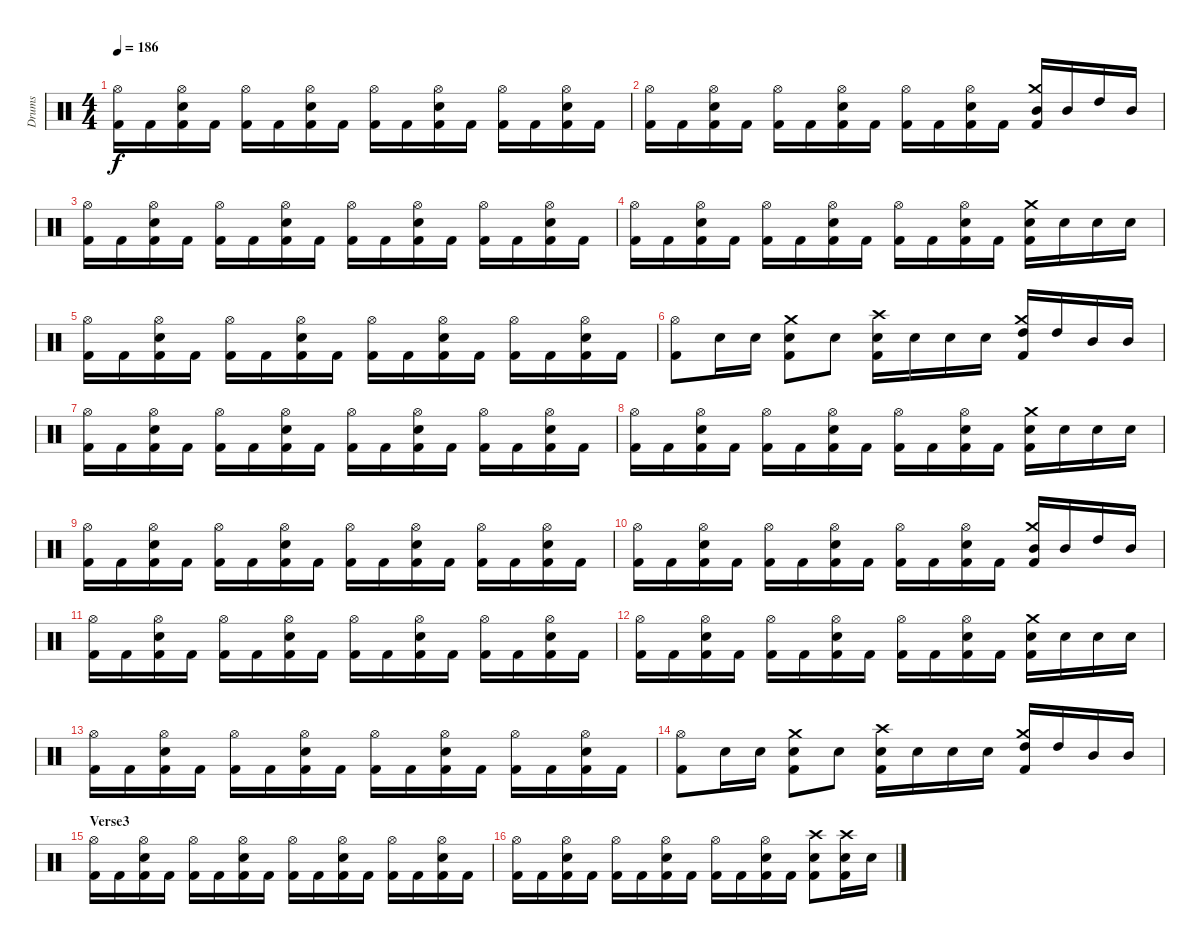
\track ("Drums" "Drums") {instrument percussion}
\staff {score}
\articulation defaults
\ts (4 4)
\tempo 186
\clef neutral
\ks c
("Hi-Hat (open)" "Kick (hit) 2").16{dy f} "Kick (hit) 2".16 ("Electric Snare (hit)" "Hi-Hat (open)" "Kick (hit) 2").16 "Kick (hit) 2".16 ("Hi-Hat (open)" "Kick (hit) 2").16 "Kick (hit) 2".16 ("Electric Snare (hit)" "Hi-Hat (open)" "Kick (hit) 2").16 "Kick (hit) 2".16 ("Hi-Hat (open)" "Kick (hit) 2").16 "Kick (hit) 2".16 ("Electric Snare (hit)" "Hi-Hat (open)" "Kick (hit) 2").16 "Kick (hit) 2".16 ("Hi-Hat (open)" "Kick (hit) 2").16 "Kick (hit) 2".16 ("Electric Snare (hit)" "Hi-Hat (open)" "Kick (hit) 2").16 "Kick (hit) 2".16 |
("Hi-Hat (open)" "Kick (hit) 2").16 "Kick (hit) 2".16 ("Electric Snare (hit)" "Hi-Hat (open)" "Kick (hit) 2").16 "Kick (hit) 2".16 ("Hi-Hat (open)" "Kick (hit) 2").16 "Kick (hit) 2".16 ("Electric Snare (hit)" "Hi-Hat (open)" "Kick (hit) 2").16 "Kick (hit) 2".16 ("Hi-Hat (open)" "Kick (hit) 2").16 "Kick (hit) 2".16 ("Electric Snare (hit)" "Hi-Hat (open)" "Kick (hit) 2").16 "Kick (hit) 2".16 ("Crash medium (hit)" "Kick (hit) 2" "Mid Tom (hit)").16 "Mid Tom (hit)".16 "High Tom (hit)".16 "Mid Tom (hit)".16 |
("Hi-Hat (open)" "Kick (hit) 2").16 "Kick (hit) 2".16 ("Electric Snare (hit)" "Hi-Hat (open)" "Kick (hit) 2").16 "Kick (hit) 2".16 ("Hi-Hat (open)" "Kick (hit) 2").16 "Kick (hit) 2".16 ("Electric Snare (hit)" "Hi-Hat (open)" "Kick (hit) 2").16 "Kick (hit) 2".16 ("Hi-Hat (open)" "Kick (hit) 2").16 "Kick (hit) 2".16 ("Electric Snare (hit)" "Hi-Hat (open)" "Kick (hit) 2").16 "Kick (hit) 2".16 ("Hi-Hat (open)" "Kick (hit) 2").16 "Kick (hit) 2".16 ("Electric Snare (hit)" "Hi-Hat (open)" "Kick (hit) 2").16 "Kick (hit) 2".16 |
("Hi-Hat (open)" "Kick (hit) 2").16 "Kick (hit) 2".16 ("Electric Snare (hit)" "Hi-Hat (open)" "Kick (hit) 2").16 "Kick (hit) 2".16 ("Hi-Hat (open)" "Kick (hit) 2").16 "Kick (hit) 2".16 ("Electric Snare (hit)" "Hi-Hat (open)" "Kick (hit) 2").16 "Kick (hit) 2".16 ("Hi-Hat (open)" "Kick (hit) 2").16 "Kick (hit) 2".16 ("Electric Snare (hit)" "Hi-Hat (open)" "Kick (hit) 2").16 "Kick (hit) 2".16 ("Crash medium (hit)" "Kick (hit) 2" "Electric Snare (hit)").16 "Electric Snare (hit)".16 "Electric Snare (hit)".16 "Electric Snare (hit)".16 |
("Hi-Hat (open)" "Kick (hit) 2").16 "Kick (hit) 2".16 ("Electric Snare (hit)" "Hi-Hat (open)" "Kick (hit) 2").16 "Kick (hit) 2".16 ("Hi-Hat (open)" "Kick (hit) 2").16 "Kick (hit) 2".16 ("Electric Snare (hit)" "Hi-Hat (open)" "Kick (hit) 2").16 "Kick (hit) 2".16 ("Hi-Hat (open)" "Kick (hit) 2").16 "Kick (hit) 2".16 ("Electric Snare (hit)" "Hi-Hat (open)" "Kick (hit) 2").16 "Kick (hit) 2".16 ("Hi-Hat (open)" "Kick (hit) 2").16 "Kick (hit) 2".16 ("Electric Snare (hit)" "Hi-Hat (open)" "Kick (hit) 2").16 "Kick (hit) 2".16 |
("Hi-Hat (open)" "Kick (hit) 2").8 "Electric Snare (hit)".16 "Electric Snare (hit)".16 ("Crash medium (hit)" "Electric Snare (hit)" "Kick (hit) 2").8 "Electric Snare (hit)".8 ("Crash high (hit)" "Electric Snare (hit)" "Kick (hit) 2").16 "Electric Snare (hit)".16 "Electric Snare (hit)".16 "Electric Snare (hit)".16 ("Crash medium (hit)" "High Tom (hit)" "Kick (hit) 2").16 "High Tom (hit)".16 "Mid Tom (hit)".16 "Mid Tom (hit)".16 |
("Hi-Hat (open)" "Kick (hit) 2").16 "Kick (hit) 2".16 ("Electric Snare (hit)" "Hi-Hat (open)" "Kick (hit) 2").16 "Kick (hit) 2".16 ("Hi-Hat (open)" "Kick (hit) 2").16 "Kick (hit) 2".16 ("Electric Snare (hit)" "Hi-Hat (open)" "Kick (hit) 2").16 "Kick (hit) 2".16 ("Hi-Hat (open)" "Kick (hit) 2").16 "Kick (hit) 2".16 ("Electric Snare (hit)" "Hi-Hat (open)" "Kick (hit) 2").16 "Kick (hit) 2".16 ("Hi-Hat (open)" "Kick (hit) 2").16 "Kick (hit) 2".16 ("Electric Snare (hit)" "Hi-Hat (open)" "Kick (hit) 2").16 "Kick (hit) 2".16 |
("Hi-Hat (open)" "Kick (hit) 2").16 "Kick (hit) 2".16 ("Electric Snare (hit)" "Hi-Hat (open)" "Kick (hit) 2").16 "Kick (hit) 2".16 ("Hi-Hat (open)" "Kick (hit) 2").16 "Kick (hit) 2".16 ("Electric Snare (hit)" "Hi-Hat (open)" "Kick (hit) 2").16 "Kick (hit) 2".16 ("Hi-Hat (open)" "Kick (hit) 2").16 "Kick (hit) 2".16 ("Electric Snare (hit)" "Hi-Hat (open)" "Kick (hit) 2").16 "Kick (hit) 2".16 ("Crash medium (hit)" "Kick (hit) 2" "Electric Snare (hit)").16 "Electric Snare (hit)".16 "Electric Snare (hit)".16 "Electric Snare (hit)".16 |
("Hi-Hat (open)" "Kick (hit) 2").16 "Kick (hit) 2".16 ("Electric Snare (hit)" "Hi-Hat (open)" "Kick (hit) 2").16 "Kick (hit) 2".16 ("Hi-Hat (open)" "Kick (hit) 2").16 "Kick (hit) 2".16 ("Electric Snare (hit)" "Hi-Hat (open)" "Kick (hit) 2").16 "Kick (hit) 2".16 ("Hi-Hat (open)" "Kick (hit) 2").16 "Kick (hit) 2".16 ("Electric Snare (hit)" "Hi-Hat (open)" "Kick (hit) 2").16 "Kick (hit) 2".16 ("Hi-Hat (open)" "Kick (hit) 2").16 "Kick (hit) 2".16 ("Electric Snare (hit)" "Hi-Hat (open)" "Kick (hit) 2").16 "Kick (hit) 2".16 |
("Hi-Hat (open)" "Kick (hit) 2").16 "Kick (hit) 2".16 ("Electric Snare (hit)" "Hi-Hat (open)" "Kick (hit) 2").16 "Kick (hit) 2".16 ("Hi-Hat (open)" "Kick (hit) 2").16 "Kick (hit) 2".16 ("Electric Snare (hit)" "Hi-Hat (open)" "Kick (hit) 2").16 "Kick (hit) 2".16 ("Hi-Hat (open)" "Kick (hit) 2").16 "Kick (hit) 2".16 ("Electric Snare (hit)" "Hi-Hat (open)" "Kick (hit) 2").16 "Kick (hit) 2".16 ("Crash medium (hit)" "Kick (hit) 2" "Mid Tom (hit)").16 "Mid Tom (hit)".16 "High Tom (hit)".16 "Mid Tom (hit)".16 |
("Hi-Hat (open)" "Kick (hit) 2").16 "Kick (hit) 2".16 ("Electric Snare (hit)" "Hi-Hat (open)" "Kick (hit) 2").16 "Kick (hit) 2".16 ("Hi-Hat (open)" "Kick (hit) 2").16 "Kick (hit) 2".16 ("Electric Snare (hit)" "Hi-Hat (open)" "Kick (hit) 2").16 "Kick (hit) 2".16 ("Hi-Hat (open)" "Kick (hit) 2").16 "Kick (hit) 2".16 ("Electric Snare (hit)" "Hi-Hat (open)" "Kick (hit) 2").16 "Kick (hit) 2".16 ("Hi-Hat (open)" "Kick (hit) 2").16 "Kick (hit) 2".16 ("Electric Snare (hit)" "Hi-Hat (open)" "Kick (hit) 2").16 "Kick (hit) 2".16 |
("Hi-Hat (open)" "Kick (hit) 2").16 "Kick (hit) 2".16 ("Electric Snare (hit)" "Hi-Hat (open)" "Kick (hit) 2").16 "Kick (hit) 2".16 ("Hi-Hat (open)" "Kick (hit) 2").16 "Kick (hit) 2".16 ("Electric Snare (hit)" "Hi-Hat (open)" "Kick (hit) 2").16 "Kick (hit) 2".16 ("Hi-Hat (open)" "Kick (hit) 2").16 "Kick (hit) 2".16 ("Electric Snare (hit)" "Hi-Hat (open)" "Kick (hit) 2").16 "Kick (hit) 2".16 ("Crash medium (hit)" "Kick (hit) 2" "Electric Snare (hit)").16 "Electric Snare (hit)".16 "Electric Snare (hit)".16 "Electric Snare (hit)".16 |
("Hi-Hat (open)" "Kick (hit) 2").16 "Kick (hit) 2".16 ("Electric Snare (hit)" "Hi-Hat (open)" "Kick (hit) 2").16 "Kick (hit) 2".16 ("Hi-Hat (open)" "Kick (hit) 2").16 "Kick (hit) 2".16 ("Electric Snare (hit)" "Hi-Hat (open)" "Kick (hit) 2").16 "Kick (hit) 2".16 ("Hi-Hat (open)" "Kick (hit) 2").16 "Kick (hit) 2".16 ("Electric Snare (hit)" "Hi-Hat (open)" "Kick (hit) 2").16 "Kick (hit) 2".16 ("Hi-Hat (open)" "Kick (hit) 2").16 "Kick (hit) 2".16 ("Electric Snare (hit)" "Hi-Hat (open)" "Kick (hit) 2").16 "Kick (hit) 2".16 |
("Hi-Hat (open)" "Kick (hit) 2").8 "Electric Snare (hit)".16 "Electric Snare (hit)".16 ("Crash medium (hit)" "Electric Snare (hit)" "Kick (hit) 2").8 "Electric Snare (hit)".8 ("Crash high (hit)" "Electric Snare (hit)" "Kick (hit) 2").16 "Electric Snare (hit)".16 "Electric Snare (hit)".16 "Electric Snare (hit)".16 ("Crash medium (hit)" "High Tom (hit)" "Kick (hit) 2").16 "High Tom (hit)".16 "Mid Tom (hit)".16 "Mid Tom (hit)".16 |
\section ("" "Verse3")
("Hi-Hat (open)" "Kick (hit) 2").16 "Kick (hit) 2".16 ("Electric Snare (hit)" "Hi-Hat (open)" "Kick (hit) 2").16 "Kick (hit) 2".16 ("Hi-Hat (open)" "Kick (hit) 2").16 "Kick (hit) 2".16 ("Electric Snare (hit)" "Hi-Hat (open)" "Kick (hit) 2").16 "Kick (hit) 2".16 ("Hi-Hat (open)" "Kick (hit) 2").16 "Kick (hit) 2".16 ("Electric Snare (hit)" "Hi-Hat (open)" "Kick (hit) 2").16 "Kick (hit) 2".16 ("Hi-Hat (open)" "Kick (hit) 2").16 "Kick (hit) 2".16 ("Electric Snare (hit)" "Hi-Hat (open)" "Kick (hit) 2").16 "Kick (hit) 2".16 |
("Hi-Hat (open)" "Kick (hit) 2").16 "Kick (hit) 2".16 ("Electric Snare (hit)" "Hi-Hat (open)" "Kick (hit) 2").16 "Kick (hit) 2".16 ("Hi-Hat (open)" "Kick (hit) 2").16 "Kick (hit) 2".16 ("Electric Snare (hit)" "Hi-Hat (open)" "Kick (hit) 2").16 "Kick (hit) 2".16 ("Hi-Hat (open)" "Kick (hit) 2").16 "Kick (hit) 2".16 ("Electric Snare (hit)" "Hi-Hat (open)" "Kick (hit) 2").16 "Kick (hit) 2".16 ("Crash high (hit)" "Electric Snare (hit)" "Kick (hit) 2").8 ("Crash high (hit)" "Electric Snare (hit)" "Kick (hit) 2").16 "Electric Snare (hit)".16
